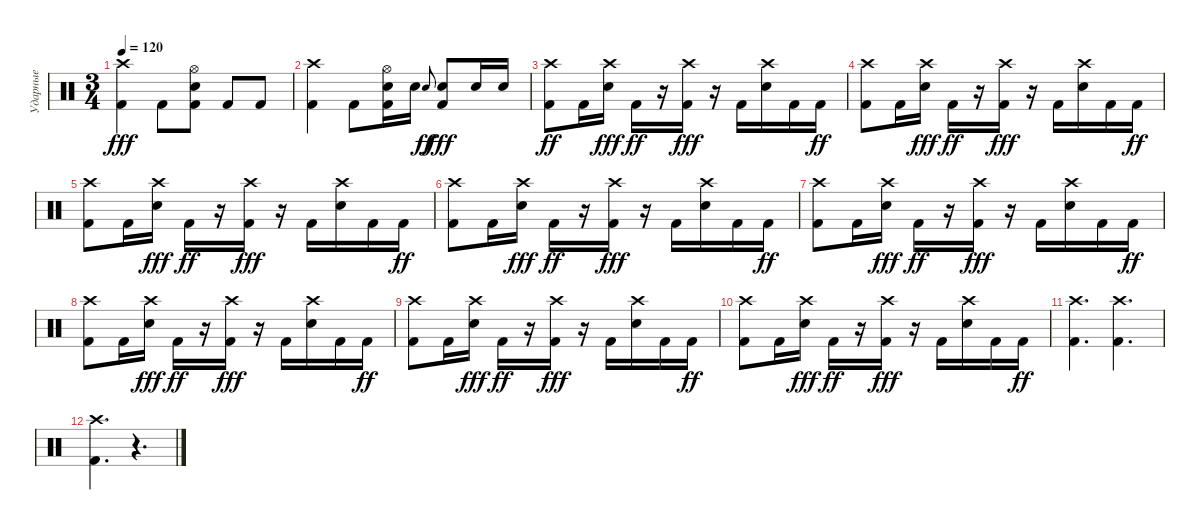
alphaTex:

\track ("Ударные" "Ударные") {instrument percussion}
\staff {score}
\articulation defaults
\ts (3 4)
\tempo 120
\clef neutral
\ks c
("Crash high (hit)" "Kick (hit) 2").4{dy fff} "Kick (hit) 2".8 ("Kick (hit) 2" "Electric Snare (hit)" "Hi-Hat (open)").8 "Kick (hit) 2".8 "Kick (hit) 2".8 |
("Crash high (hit)" "Kick (hit) 2").4 "Kick (hit) 2".8 ("Kick (hit) 2" "Electric Snare (hit)" "Hi-Hat (open)").16 "Electric Snare (hit)".16 "Electric Snare (hit)".8{gr onbeat dy ff} ("Kick (hit) 2" "Electric Snare (hit)").8{dy fff} "Electric Snare (hit)".16 "Electric Snare (hit)".16 |
("Crash high (hit)" "Kick (hit) 2").8{dy ff volume 16 balance 8} "Kick (hit) 2".16 ("Crash high (hit)" "Electric Snare (hit)").16{dy fff} "Kick (hit) 2".16{dy ff} r.16 ("Crash high (hit)" "Kick (hit) 2").16{dy fff} r.16 "Kick (hit) 2".16 ("Crash high (hit)" "Electric Snare (hit)").16 "Kick (hit) 2".16 "Kick (hit) 2".16{dy ff} |
("Crash high (hit)" "Kick (hit) 2").8 "Kick (hit) 2".16 ("Crash high (hit)" "Electric Snare (hit)").16{dy fff} "Kick (hit) 2".16{dy ff} r.16 ("Crash high (hit)" "Kick (hit) 2").16{dy fff} r.16 "Kick (hit) 2".16 ("Crash high (hit)" "Electric Snare (hit)").16 "Kick (hit) 2".16 "Kick (hit) 2".16{dy ff} |
("Crash high (hit)" "Kick (hit) 2").8 "Kick (hit) 2".16 ("Crash high (hit)" "Electric Snare (hit)").16{dy fff} "Kick (hit) 2".16{dy ff} r.16 ("Crash high (hit)" "Kick (hit) 2").16{dy fff} r.16 "Kick (hit) 2".16 ("Crash high (hit)" "Electric Snare (hit)").16 "Kick (hit) 2".16 "Kick (hit) 2".16{dy ff} |
("Crash high (hit)" "Kick (hit) 2").8 "Kick (hit) 2".16 ("Crash high (hit)" "Electric Snare (hit)").16{dy fff} "Kick (hit) 2".16{dy ff} r.16 ("Crash high (hit)" "Kick (hit) 2").16{dy fff} r.16 "Kick (hit) 2".16 ("Crash high (hit)" "Electric Snare (hit)").16 "Kick (hit) 2".16 "Kick (hit) 2".16{dy ff} |
("Crash high (hit)" "Kick (hit) 2").8 "Kick (hit) 2".16 ("Crash high (hit)" "Electric Snare (hit)").16{dy fff} "Kick (hit) 2".16{dy ff} r.16 ("Crash high (hit)" "Kick (hit) 2").16{dy fff} r.16 "Kick (hit) 2".16 ("Crash high (hit)" "Electric Snare (hit)").16 "Kick (hit) 2".16 "Kick (hit) 2".16{dy ff} |
("Crash high (hit)" "Kick (hit) 2").8 "Kick (hit) 2".16 ("Crash high (hit)" "Electric Snare (hit)").16{dy fff} "Kick (hit) 2".16{dy ff} r.16 ("Crash high (hit)" "Kick (hit) 2").16{dy fff} r.16 "Kick (hit) 2".16 ("Crash high (hit)" "Electric Snare (hit)").16 "Kick (hit) 2".16 "Kick (hit) 2".16{dy ff} |
("Crash high (hit)" "Kick (hit) 2").8 "Kick (hit) 2".16 ("Crash high (hit)" "Electric Snare (hit)").16{dy fff} "Kick (hit) 2".16{dy ff} r.16 ("Crash high (hit)" "Kick (hit) 2").16{dy fff} r.16 "Kick (hit) 2".16 ("Crash high (hit)" "Electric Snare (hit)").16 "Kick (hit) 2".16 "Kick (hit) 2".16{dy ff} |
("Crash high (hit)" "Kick (hit) 2").8 "Kick (hit) 2".16 ("Crash high (hit)" "Electric Snare (hit)").16{dy fff} "Kick (hit) 2".16{dy ff} r.16 ("Crash high (hit)" "Kick (hit) 2").16{dy fff} r.16 "Kick (hit) 2".16 ("Crash high (hit)" "Electric Snare (hit)").16 "Kick (hit) 2".16 "Kick (hit) 2".16{dy ff} |
("Crash high (hit)" "Kick (hit) 2").4{d} ("Crash high (hit)" "Kick (hit) 2").4{d} |
("Crash high (hit)" "Kick (hit) 2").4{d} r.4{d}
